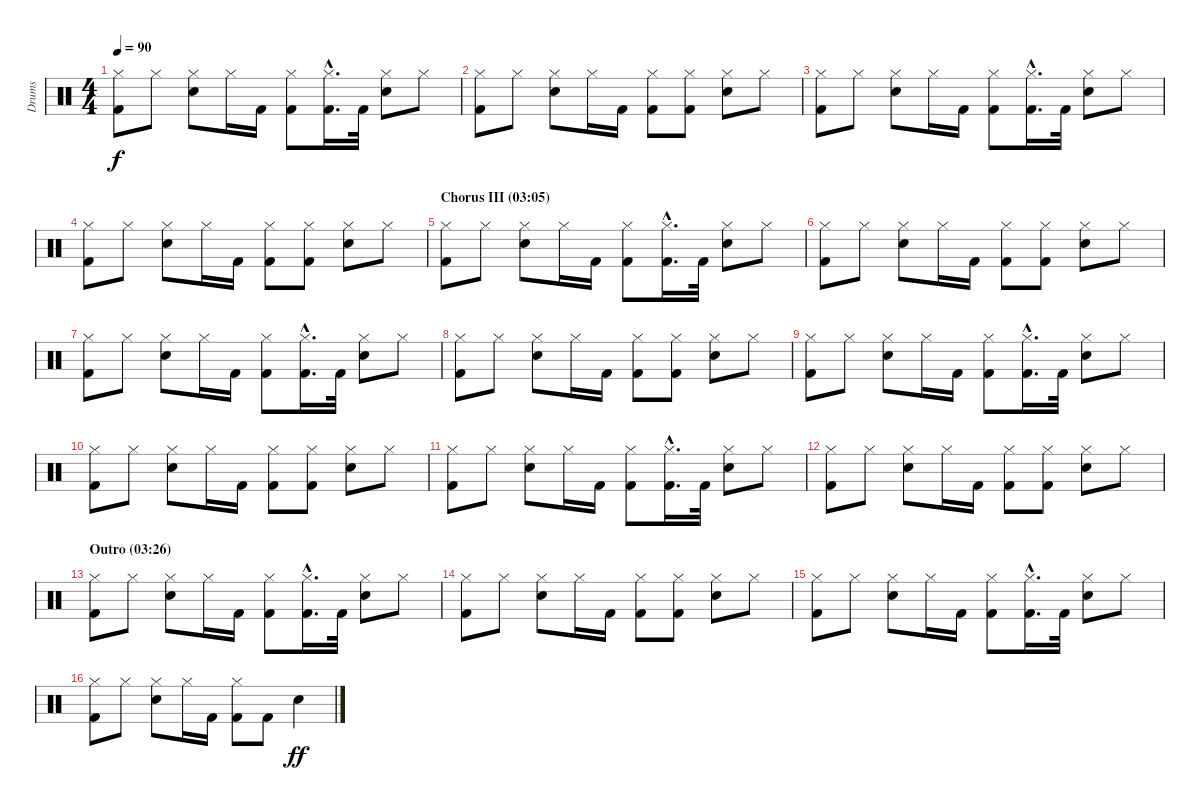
\track ("Drums" "Drums") {instrument percussion}
\staff {score}
\articulation defaults
\ts (4 4)
\tempo 90
\clef neutral
\ks c
("Hi-Hat (closed)" "Kick (hit) 2").8{dy f} "Hi-Hat (closed)".8 ("Hi-Hat (closed)" "Electric Snare (hit)").8 "Hi-Hat (closed)".16 "Kick (hit) 2".16 ("Hi-Hat (closed)" "Kick (hit) 2").8 ("Hi-Hat (closed)"{hac} "Kick (hit) 2"{hac}).16{d} "Kick (hit) 2".32 ("Hi-Hat (closed)" "Electric Snare (hit)").8 "Hi-Hat (closed)".8 |
("Hi-Hat (closed)" "Kick (hit) 2").8 "Hi-Hat (closed)".8 ("Hi-Hat (closed)" "Electric Snare (hit)").8 "Hi-Hat (closed)".16 "Kick (hit) 2".16 ("Hi-Hat (closed)" "Kick (hit) 2").8 ("Hi-Hat (closed)" "Kick (hit) 2").8 ("Hi-Hat (closed)" "Electric Snare (hit)").8 "Hi-Hat (closed)".8 |
("Hi-Hat (closed)" "Kick (hit) 2").8 "Hi-Hat (closed)".8 ("Hi-Hat (closed)" "Electric Snare (hit)").8 "Hi-Hat (closed)".16 "Kick (hit) 2".16 ("Hi-Hat (closed)" "Kick (hit) 2").8 ("Hi-Hat (closed)"{hac} "Kick (hit) 2"{hac}).16{d} "Kick (hit) 2".32 ("Hi-Hat (closed)" "Electric Snare (hit)").8 "Hi-Hat (closed)".8 |
("Hi-Hat (closed)" "Kick (hit) 2").8 "Hi-Hat (closed)".8 ("Hi-Hat (closed)" "Electric Snare (hit)").8 "Hi-Hat (closed)".16 "Kick (hit) 2".16 ("Hi-Hat (closed)" "Kick (hit) 2").8 ("Hi-Hat (closed)" "Kick (hit) 2").8 ("Hi-Hat (closed)" "Electric Snare (hit)").8 "Hi-Hat (closed)".8 |
\section ("" "Chorus III (03:05)")
("Hi-Hat (closed)" "Kick (hit) 2").8 "Hi-Hat (closed)".8 ("Hi-Hat (closed)" "Electric Snare (hit)").8 "Hi-Hat (closed)".16 "Kick (hit) 2".16 ("Hi-Hat (closed)" "Kick (hit) 2").8 ("Hi-Hat (closed)"{hac} "Kick (hit) 2"{hac}).16{d} "Kick (hit) 2".32 ("Hi-Hat (closed)" "Electric Snare (hit)").8 "Hi-Hat (closed)".8 |
("Hi-Hat (closed)" "Kick (hit) 2").8 "Hi-Hat (closed)".8 ("Hi-Hat (closed)" "Electric Snare (hit)").8 "Hi-Hat (closed)".16 "Kick (hit) 2".16 ("Hi-Hat (closed)" "Kick (hit) 2").8 ("Hi-Hat (closed)" "Kick (hit) 2").8 ("Hi-Hat (closed)" "Electric Snare (hit)").8 "Hi-Hat (closed)".8 |
("Hi-Hat (closed)" "Kick (hit) 2").8 "Hi-Hat (closed)".8 ("Hi-Hat (closed)" "Electric Snare (hit)").8 "Hi-Hat (closed)".16 "Kick (hit) 2".16 ("Hi-Hat (closed)" "Kick (hit) 2").8 ("Hi-Hat (closed)"{hac} "Kick (hit) 2"{hac}).16{d} "Kick (hit) 2".32 ("Hi-Hat (closed)" "Electric Snare (hit)").8 "Hi-Hat (closed)".8 |
("Hi-Hat (closed)" "Kick (hit) 2").8 "Hi-Hat (closed)".8 ("Hi-Hat (closed)" "Electric Snare (hit)").8 "Hi-Hat (closed)".16 "Kick (hit) 2".16 ("Hi-Hat (closed)" "Kick (hit) 2").8 ("Hi-Hat (closed)" "Kick (hit) 2").8 ("Hi-Hat (closed)" "Electric Snare (hit)").8 "Hi-Hat (closed)".8 |
("Hi-Hat (closed)" "Kick (hit) 2").8 "Hi-Hat (closed)".8 ("Hi-Hat (closed)" "Electric Snare (hit)").8 "Hi-Hat (closed)".16 "Kick (hit) 2".16 ("Hi-Hat (closed)" "Kick (hit) 2").8 ("Hi-Hat (closed)"{hac} "Kick (hit) 2"{hac}).16{d} "Kick (hit) 2".32 ("Hi-Hat (closed)" "Electric Snare (hit)").8 "Hi-Hat (closed)".8 |
("Hi-Hat (closed)" "Kick (hit) 2").8 "Hi-Hat (closed)".8 ("Hi-Hat (closed)" "Electric Snare (hit)").8 "Hi-Hat (closed)".16 "Kick (hit) 2".16 ("Hi-Hat (closed)" "Kick (hit) 2").8 ("Hi-Hat (closed)" "Kick (hit) 2").8 ("Hi-Hat (closed)" "Electric Snare (hit)").8 "Hi-Hat (closed)".8 |
("Hi-Hat (closed)" "Kick (hit) 2").8 "Hi-Hat (closed)".8 ("Hi-Hat (closed)" "Electric Snare (hit)").8 "Hi-Hat (closed)".16 "Kick (hit) 2".16 ("Hi-Hat (closed)" "Kick (hit) 2").8 ("Hi-Hat (closed)"{hac} "Kick (hit) 2"{hac}).16{d} "Kick (hit) 2".32 ("Hi-Hat (closed)" "Electric Snare (hit)").8 "Hi-Hat (closed)".8 |
("Hi-Hat (closed)" "Kick (hit) 2").8 "Hi-Hat (closed)".8 ("Hi-Hat (closed)" "Electric Snare (hit)").8 "Hi-Hat (closed)".16 "Kick (hit) 2".16 ("Hi-Hat (closed)" "Kick (hit) 2").8 ("Hi-Hat (closed)" "Kick (hit) 2").8 ("Hi-Hat (closed)" "Electric Snare (hit)").8 "Hi-Hat (closed)".8 |
\section ("" "Outro (03:26)")
("Hi-Hat (closed)" "Kick (hit) 2").8 "Hi-Hat (closed)".8 ("Hi-Hat (closed)" "Electric Snare (hit)").8 "Hi-Hat (closed)".16 "Kick (hit) 2".16 ("Hi-Hat (closed)" "Kick (hit) 2").8 ("Hi-Hat (closed)"{hac} "Kick (hit) 2"{hac}).16{d} "Kick (hit) 2".32 ("Hi-Hat (closed)" "Electric Snare (hit)").8 "Hi-Hat (closed)".8 |
("Hi-Hat (closed)" "Kick (hit) 2").8 "Hi-Hat (closed)".8 ("Hi-Hat (closed)" "Electric Snare (hit)").8 "Hi-Hat (closed)".16 "Kick (hit) 2".16 ("Hi-Hat (closed)" "Kick (hit) 2").8 ("Hi-Hat (closed)" "Kick (hit) 2").8 ("Hi-Hat (closed)" "Electric Snare (hit)").8 "Hi-Hat (closed)".8 |
("Hi-Hat (closed)" "Kick (hit) 2").8 "Hi-Hat (closed)".8 ("Hi-Hat (closed)" "Electric Snare (hit)").8 "Hi-Hat (closed)".16 "Kick (hit) 2".16 ("Hi-Hat (closed)" "Kick (hit) 2").8 ("Hi-Hat (closed)"{hac} "Kick (hit) 2"{hac}).16{d} "Kick (hit) 2".32 ("Hi-Hat (closed)" "Electric Snare (hit)").8 "Hi-Hat (closed)".8 |
("Hi-Hat (closed)" "Kick (hit) 2").8 "Hi-Hat (closed)".8 ("Hi-Hat (closed)" "Electric Snare (hit)").8 "Hi-Hat (closed)".16 "Kick (hit) 2".16 ("Hi-Hat (closed)" "Kick (hit) 2").8 "Kick (hit) 2".8 "Electric Snare (hit)".4{dy ff}
